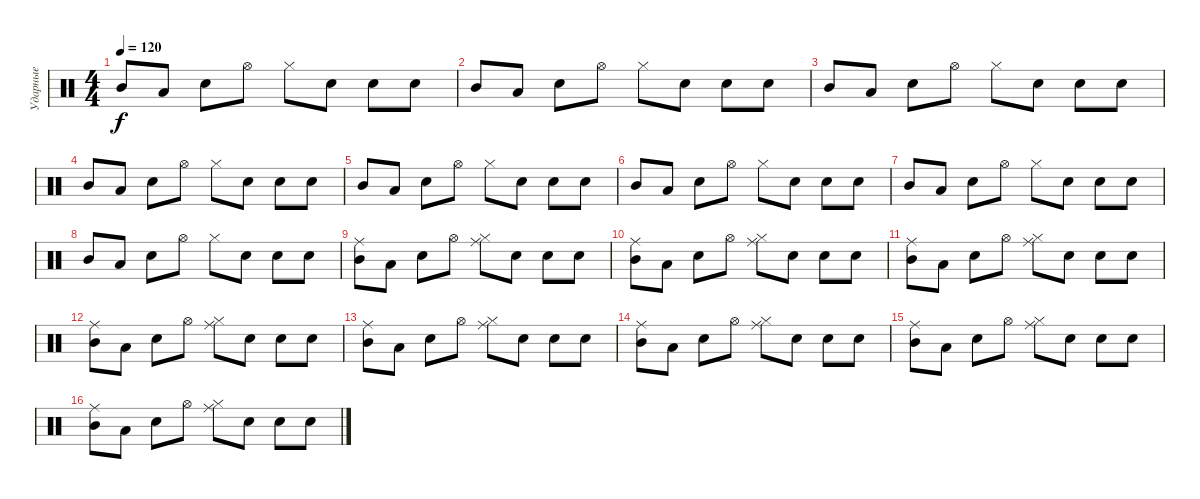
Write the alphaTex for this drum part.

\track ("Ударные" "Ударные") {instrument percussion}
\staff {score}
\articulation defaults
\ts (4 4)
\tempo 120
\clef neutral
\ks c "Mid Tom (hit)".8{dy f} "Low Tom (hit)".8 "Electric Snare (hit)".8 "Hi-Hat (open)".8 "Hi-Hat (closed)".8 "Snare (hit)".8 "Electric Snare (hit)".8 "Snare (hit)".8
|
"Mid Tom (hit)".8 "Low Tom (hit)".8 "Electric Snare (hit)".8 "Hi-Hat (open)".8 "Hi-Hat (closed)".8 "Snare (hit)".8 "Electric Snare (hit)".8 "Snare (hit)".8 |
"Mid Tom (hit)".8 "Low Tom (hit)".8 "Electric Snare (hit)".8 "Hi-Hat (open)".8 "Hi-Hat (closed)".8 "Snare (hit)".8 "Electric Snare (hit)".8 "Snare (hit)".8 |
"Mid Tom (hit)".8 "Low Tom (hit)".8 "Electric Snare (hit)".8 "Hi-Hat (open)".8 "Hi-Hat (closed)".8 "Snare (hit)".8 "Electric Snare (hit)".8 "Snare (hit)".8 |
"Mid Tom (hit)".8 "Low Tom (hit)".8 "Electric Snare (hit)".8 "Hi-Hat (open)".8 "Hi-Hat (closed)".8 "Snare (hit)".8 "Electric Snare (hit)".8 "Snare (hit)".8 |
"Mid Tom (hit)".8 "Low Tom (hit)".8 "Electric Snare (hit)".8 "Hi-Hat (open)".8 "Hi-Hat (closed)".8 "Snare (hit)".8 "Electric Snare (hit)".8 "Snare (hit)".8 |
"Mid Tom (hit)".8 "Low Tom (hit)".8 "Electric Snare (hit)".8 "Hi-Hat (open)".8 "Hi-Hat (closed)".8 "Snare (hit)".8 "Electric Snare (hit)".8 "Snare (hit)".8 |
"Mid Tom (hit)".8 "Low Tom (hit)".8 "Electric Snare (hit)".8 "Hi-Hat (open)".8 "Hi-Hat (closed)".8 "Snare (hit)".8 "Electric Snare (hit)".8 "Snare (hit)".8 |
("Ride (middle)" "Mid Tom (hit)").8 "Low Tom (hit)".8 "Electric Snare (hit)".8 "Hi-Hat (open)".8 ("Ride (middle)" "Hi-Hat (closed)").8 "Snare (hit)".8 "Electric Snare (hit)".8 "Snare (hit)".8 |
("Ride (middle)" "Mid Tom (hit)").8 "Low Tom (hit)".8 "Electric Snare (hit)".8 "Hi-Hat (open)".8 ("Ride (middle)" "Hi-Hat (closed)").8 "Snare (hit)".8 "Electric Snare (hit)".8 "Snare (hit)".8 |
("Ride (middle)" "Mid Tom (hit)").8 "Low Tom (hit)".8 "Electric Snare (hit)".8 "Hi-Hat (open)".8 ("Ride (middle)" "Hi-Hat (closed)").8 "Snare (hit)".8 "Electric Snare (hit)".8 "Snare (hit)".8 |
("Ride (middle)" "Mid Tom (hit)").8 "Low Tom (hit)".8 "Electric Snare (hit)".8 "Hi-Hat (open)".8 ("Ride (middle)" "Hi-Hat (closed)").8 "Snare (hit)".8 "Electric Snare (hit)".8 "Snare (hit)".8 |
("Ride (middle)" "Mid Tom (hit)").8 "Low Tom (hit)".8 "Electric Snare (hit)".8 "Hi-Hat (open)".8 ("Ride (middle)" "Hi-Hat (closed)").8 "Snare (hit)".8 "Electric Snare (hit)".8 "Snare (hit)".8 |
("Ride (middle)" "Mid Tom (hit)").8 "Low Tom (hit)".8 "Electric Snare (hit)".8 "Hi-Hat (open)".8 ("Ride (middle)" "Hi-Hat (closed)").8 "Snare (hit)".8 "Electric Snare (hit)".8 "Snare (hit)".8 |
("Ride (middle)" "Mid Tom (hit)").8 "Low Tom (hit)".8 "Electric Snare (hit)".8 "Hi-Hat (open)".8 ("Ride (middle)" "Hi-Hat (closed)").8 "Snare (hit)".8 "Electric Snare (hit)".8 "Snare (hit)".8 |
("Ride (middle)" "Mid Tom (hit)").8 "Low Tom (hit)".8 "Electric Snare (hit)".8 "Hi-Hat (open)".8 ("Ride (middle)" "Hi-Hat (closed)").8 "Snare (hit)".8 "Electric Snare (hit)".8 "Snare (hit)".8
